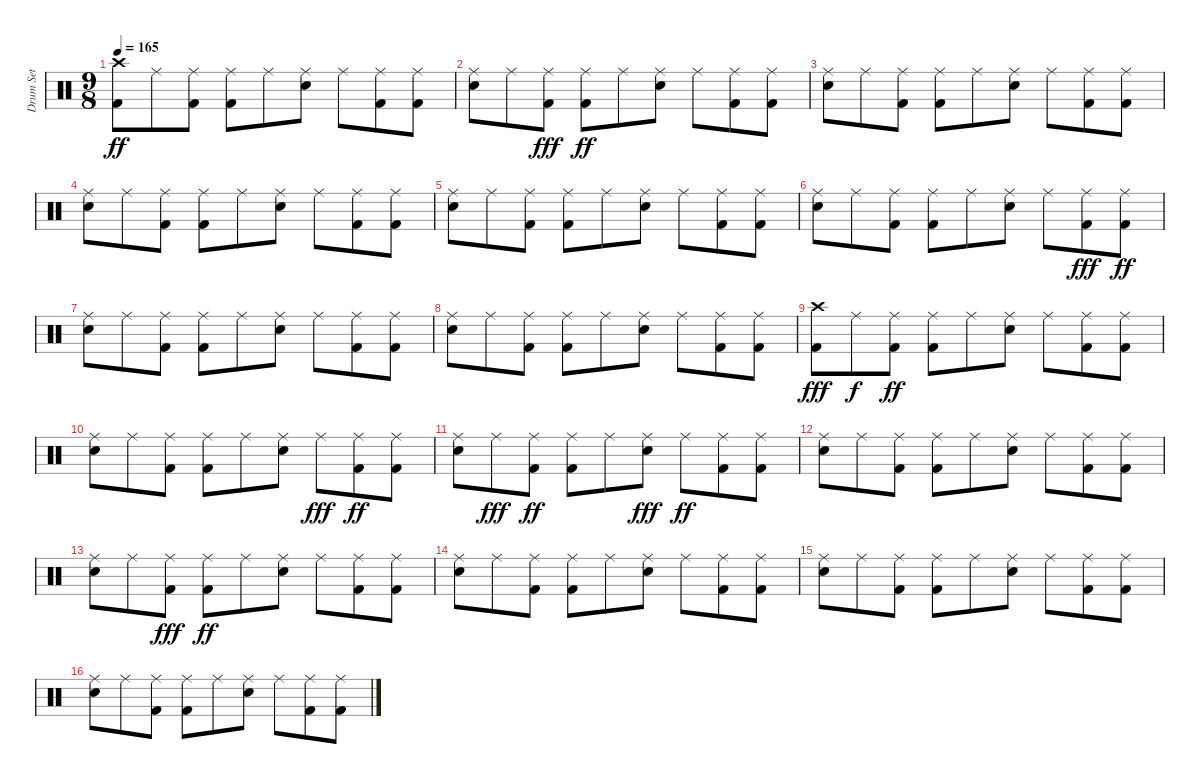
\track ("Drum Set" "Drum Set") {instrument percussion}
\staff {score}
\articulation defaults
\ts (9 8)
\tempo 165
\clef neutral
\ks c
("Kick (hit) 2" "Crash high (hit)").8{dy ff} "Ride (middle)".8 ("Kick (hit) 2" "Ride (middle)").8 ("Kick (hit) 2" "Ride (middle)").8 "Ride (middle)".8 ("Snare (hit) 2" "Ride (middle)").8 "Ride (middle)".8 ("Kick (hit) 2" "Ride (middle)").8 ("Kick (hit) 2" "Ride (middle)").8 |
("Snare (hit) 2" "Ride (middle)").8 "Ride (middle)".8 ("Kick (hit) 2" "Ride (middle)").8{dy fff} ("Kick (hit) 2" "Ride (middle)").8{dy ff} "Ride (middle)".8 ("Snare (hit) 2" "Ride (middle)").8 "Ride (middle)".8 ("Kick (hit) 2" "Ride (middle)").8 ("Kick (hit) 2" "Ride (middle)").8 |
("Snare (hit) 2" "Ride (middle)").8 "Ride (middle)".8 ("Kick (hit) 2" "Ride (middle)").8 ("Kick (hit) 2" "Ride (middle)").8 "Ride (middle)".8 ("Snare (hit) 2" "Ride (middle)").8 "Ride (middle)".8 ("Kick (hit) 2" "Ride (middle)").8 ("Kick (hit) 2" "Ride (middle)").8 |
("Snare (hit) 2" "Ride (middle)").8 "Ride (middle)".8 ("Kick (hit) 2" "Ride (middle)").8 ("Kick (hit) 2" "Ride (middle)").8 "Ride (middle)".8 ("Snare (hit) 2" "Ride (middle)").8 "Ride (middle)".8 ("Kick (hit) 2" "Ride (middle)").8 ("Kick (hit) 2" "Ride (middle)").8 |
("Snare (hit) 2" "Ride (middle)").8 "Ride (middle)".8 ("Kick (hit) 2" "Ride (middle)").8 ("Kick (hit) 2" "Ride (middle)").8 "Ride (middle)".8 ("Snare (hit) 2" "Ride (middle)").8 "Ride (middle)".8 ("Kick (hit) 2" "Ride (middle)").8 ("Kick (hit) 2" "Ride (middle)").8 |
("Snare (hit) 2" "Ride (middle)").8 "Ride (middle)".8 ("Kick (hit) 2" "Ride (middle)").8 ("Kick (hit) 2" "Ride (middle)").8 "Ride (middle)".8 ("Snare (hit) 2" "Ride (middle)").8 "Ride (middle)".8 ("Kick (hit) 2" "Ride (middle)").8{dy fff} ("Kick (hit) 2" "Ride (middle)").8{dy ff} |
("Snare (hit) 2" "Ride (middle)").8 "Ride (middle)".8 ("Kick (hit) 2" "Ride (middle)").8 ("Kick (hit) 2" "Ride (middle)").8 "Ride (middle)".8 ("Snare (hit) 2" "Ride (middle)").8 "Ride (middle)".8 ("Kick (hit) 2" "Ride (middle)").8 ("Kick (hit) 2" "Ride (middle)").8 |
("Snare (hit) 2" "Ride (middle)").8 "Ride (middle)".8 ("Kick (hit) 2" "Ride (middle)").8 ("Kick (hit) 2" "Ride (middle)").8 "Ride (middle)".8 ("Snare (hit) 2" "Ride (middle)").8 "Ride (middle)".8 ("Kick (hit) 2" "Ride (middle)").8 ("Kick (hit) 2" "Ride (middle)").8 |
("Kick (hit) 2" "Crash high (hit)").8{dy fff} "Ride (middle)".8{dy f} ("Kick (hit) 2" "Ride (middle)").8{dy ff} ("Kick (hit) 2" "Ride (middle)").8 "Ride (middle)".8 ("Snare (hit) 2" "Ride (middle)").8 "Ride (middle)".8 ("Kick (hit) 2" "Ride (middle)").8 ("Kick (hit) 2" "Ride (middle)").8 |
("Snare (hit) 2" "Ride (middle)").8 "Ride (middle)".8 ("Kick (hit) 2" "Ride (middle)").8 ("Kick (hit) 2" "Ride (middle)").8 "Ride (middle)".8 ("Snare (hit) 2" "Ride (middle)").8 "Ride (middle)".8{dy fff} ("Kick (hit) 2" "Ride (middle)").8{dy ff} ("Kick (hit) 2" "Ride (middle)").8 |
("Snare (hit) 2" "Ride (middle)").8 "Ride (middle)".8{dy fff} ("Kick (hit) 2" "Ride (middle)").8{dy ff} ("Kick (hit) 2" "Ride (middle)").8 "Ride (middle)".8 ("Snare (hit) 2" "Ride (middle)").8{dy fff} "Ride (middle)".8{dy ff} ("Kick (hit) 2" "Ride (middle)").8 ("Kick (hit) 2" "Ride (middle)").8 |
("Snare (hit) 2" "Ride (middle)").8 "Ride (middle)".8 ("Kick (hit) 2" "Ride (middle)").8 ("Kick (hit) 2" "Ride (middle)").8 "Ride (middle)".8 ("Snare (hit) 2" "Ride (middle)").8 "Ride (middle)".8 ("Kick (hit) 2" "Ride (middle)").8 ("Kick (hit) 2" "Ride (middle)").8 |
("Snare (hit) 2" "Ride (middle)").8 "Ride (middle)".8 ("Kick (hit) 2" "Ride (middle)").8{dy fff} ("Kick (hit) 2" "Ride (middle)").8{dy ff} "Ride (middle)".8 ("Snare (hit) 2" "Ride (middle)").8 "Ride (middle)".8 ("Kick (hit) 2" "Ride (middle)").8 ("Kick (hit) 2" "Ride (middle)").8 |
("Snare (hit) 2" "Ride (middle)").8 "Ride (middle)".8 ("Kick (hit) 2" "Ride (middle)").8 ("Kick (hit) 2" "Ride (middle)").8 "Ride (middle)".8 ("Snare (hit) 2" "Ride (middle)").8 "Ride (middle)".8 ("Kick (hit) 2" "Ride (middle)").8 ("Kick (hit) 2" "Ride (middle)").8 |
("Snare (hit) 2" "Ride (middle)").8 "Ride (middle)".8 ("Kick (hit) 2" "Ride (middle)").8 ("Kick (hit) 2" "Ride (middle)").8 "Ride (middle)".8 ("Snare (hit) 2" "Ride (middle)").8 "Ride (middle)".8 ("Kick (hit) 2" "Ride (middle)").8 ("Kick (hit) 2" "Ride (middle)").8 |
("Snare (hit) 2" "Ride (middle)").8 "Ride (middle)".8 ("Kick (hit) 2" "Ride (middle)").8 ("Kick (hit) 2" "Ride (middle)").8 "Ride (middle)".8 ("Snare (hit) 2" "Ride (middle)").8 "Ride (middle)".8 ("Kick (hit) 2" "Ride (middle)").8 ("Kick (hit) 2" "Ride (middle)").8
